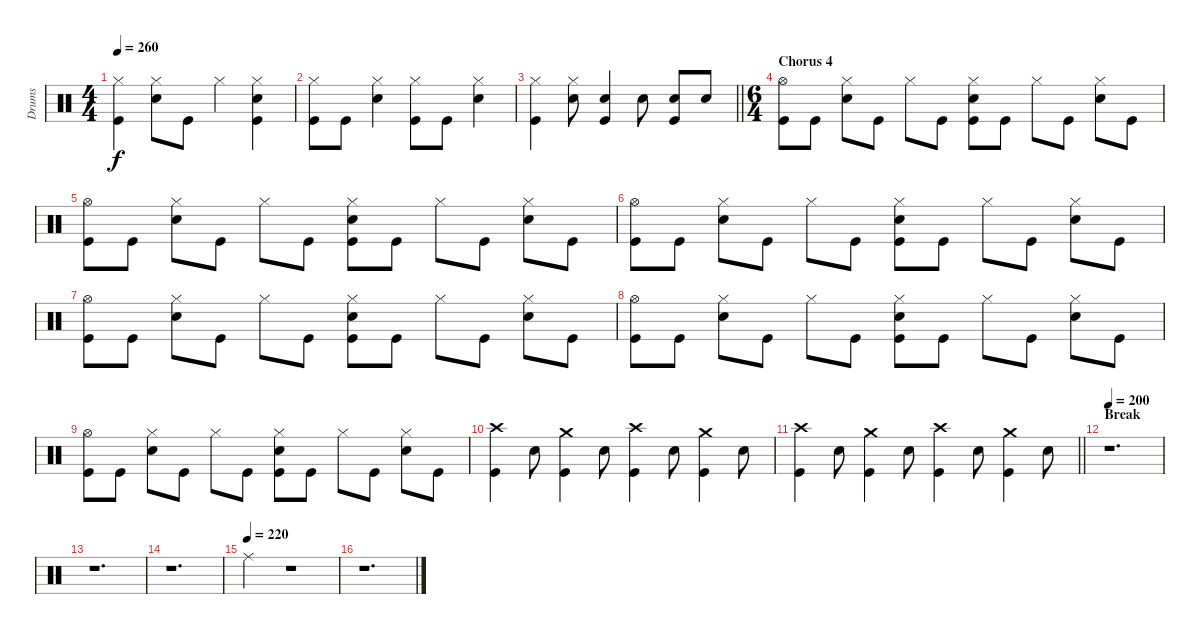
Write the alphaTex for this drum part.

\track ("Drums" "Drums") {instrument percussion}
\staff {score}
\articulation defaults
\ts (4 4)
\tempo 260
\clef neutral
\ks c
("Hi-Hat (closed)" "Kick (hit)").4{dy f} ("Hi-Hat (closed)" "Snare (hit) 2").8 "Kick (hit)".8 "Hi-Hat (closed)".4 ("Hi-Hat (closed)" "Snare (hit) 2" "Kick (hit)").4 |
("Hi-Hat (closed)" "Kick (hit)").8 "Kick (hit)".8 ("Hi-Hat (closed)" "Snare (hit) 2").4 ("Hi-Hat (closed)" "Kick (hit)").8 "Kick (hit)".8 ("Hi-Hat (closed)" "Snare (hit) 2").4 |
\barLineRight lightlight
("Hi-Hat (closed)" "Kick (hit)").4 ("Hi-Hat (closed)" "Snare (hit) 2").8 ("Snare (hit) 2" "Kick (hit)").4 "Snare (hit) 2".8 ("Snare (hit) 2" "Kick (hit)").8 "Snare (hit) 2".8 |
\ts (6 4)
\section ("" "Chorus 4")
("Hi-Hat (open)" "Kick (hit)").8 "Kick (hit)".8 ("Hi-Hat (closed)" "Snare (hit) 2").8 "Kick (hit)".8 "Hi-Hat (closed)".8 "Kick (hit)".8 ("Hi-Hat (closed)" "Snare (hit) 2" "Kick (hit)").8 "Kick (hit)".8 "Hi-Hat (closed)".8 "Kick (hit)".8 ("Hi-Hat (closed)" "Snare (hit) 2").8 "Kick (hit)".8 |
("Hi-Hat (open)" "Kick (hit)").8 "Kick (hit)".8 ("Hi-Hat (closed)" "Snare (hit) 2").8 "Kick (hit)".8 "Hi-Hat (closed)".8 "Kick (hit)".8 ("Hi-Hat (closed)" "Snare (hit) 2" "Kick (hit)").8 "Kick (hit)".8 "Hi-Hat (closed)".8 "Kick (hit)".8 ("Hi-Hat (closed)" "Snare (hit) 2").8 "Kick (hit)".8 |
("Hi-Hat (open)" "Kick (hit)").8 "Kick (hit)".8 ("Hi-Hat (closed)" "Snare (hit) 2").8 "Kick (hit)".8 "Hi-Hat (closed)".8 "Kick (hit)".8 ("Hi-Hat (closed)" "Snare (hit) 2" "Kick (hit)").8 "Kick (hit)".8 "Hi-Hat (closed)".8 "Kick (hit)".8 ("Hi-Hat (closed)" "Snare (hit) 2").8 "Kick (hit)".8 |
("Hi-Hat (open)" "Kick (hit)").8 "Kick (hit)".8 ("Hi-Hat (closed)" "Snare (hit) 2").8 "Kick (hit)".8 "Hi-Hat (closed)".8 "Kick (hit)".8 ("Hi-Hat (closed)" "Snare (hit) 2" "Kick (hit)").8 "Kick (hit)".8 "Hi-Hat (closed)".8 "Kick (hit)".8 ("Hi-Hat (closed)" "Snare (hit) 2").8 "Kick (hit)".8 |
("Hi-Hat (open)" "Kick (hit)").8 "Kick (hit)".8 ("Hi-Hat (closed)" "Snare (hit) 2").8 "Kick (hit)".8 "Hi-Hat (closed)".8 "Kick (hit)".8 ("Hi-Hat (closed)" "Snare (hit) 2" "Kick (hit)").8 "Kick (hit)".8 "Hi-Hat (closed)".8 "Kick (hit)".8 ("Hi-Hat (closed)" "Snare (hit) 2").8 "Kick (hit)".8 |
("Hi-Hat (open)" "Kick (hit)").8 "Kick (hit)".8 ("Hi-Hat (closed)" "Snare (hit) 2").8 "Kick (hit)".8 "Hi-Hat (closed)".8 "Kick (hit)".8 ("Hi-Hat (closed)" "Snare (hit) 2" "Kick (hit)").8 "Kick (hit)".8 "Hi-Hat (closed)".8 "Kick (hit)".8 ("Hi-Hat (closed)" "Snare (hit) 2").8 "Kick (hit)".8 |
("Crash high (hit)" "Kick (hit)").4 "Snare (hit) 2".8 ("Crash medium (hit)" "Kick (hit)").4 "Snare (hit) 2".8 ("Crash high (hit)" "Kick (hit)").4 "Snare (hit) 2".8 ("Crash medium (hit)" "Kick (hit)").4 "Snare (hit) 2".8 |
\barLineRight lightlight
("Crash high (hit)" "Kick (hit)").4 "Snare (hit) 2".8 ("Crash medium (hit)" "Kick (hit)").4 "Snare (hit) 2".8 ("Crash high (hit)" "Kick (hit)").4 "Snare (hit) 2".8 ("Crash medium (hit)" "Kick (hit)").4 "Snare (hit) 2".8 |
\section ("" "Break")
\tempo 200
r.1{d} |
r.1{d} |
r.1{d} |
\tempo (220)
"Ride (middle)".2 r.1 |
r.1{d}
